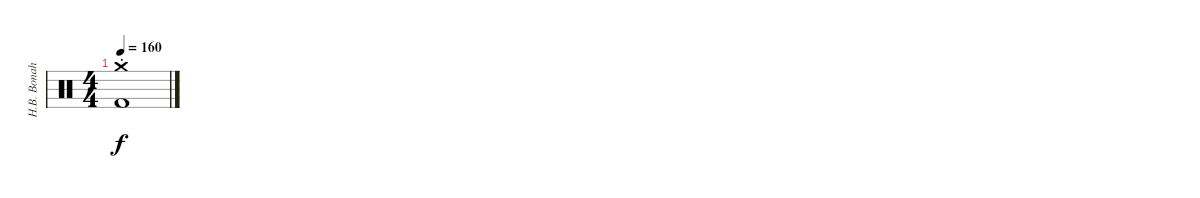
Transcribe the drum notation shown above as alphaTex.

\track ("H.B. Bonah" "H.B. Bonah") {instrument percussion}
\staff {score}
\articulation defaults
\ts (4 4)
\tempo 160
\clef neutral
\ks c
("Crash medium (hit)"{st} "Kick (hit) 2"{st}).1{dy f}
